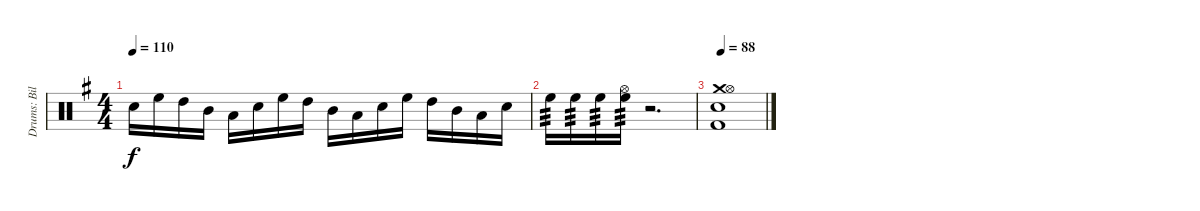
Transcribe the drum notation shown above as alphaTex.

\track ("Drums: Bill" "Drums: Bil") {instrument percussion}
\staff {score}
\articulation defaults
\ts (4 4)
\tempo 110
\clef neutral
\ks g "Snare (hit) 2".16{dy f} "High Floor Tom (hit)".16 "High Tom (hit)".16 "Mid Tom (hit)".16 "Low Tom (hit)".16 "Snare (hit) 2".16 "High Floor Tom (hit)".16 "High Tom (hit)".16 "Mid Tom (hit)".16 "Low Tom (hit)".16 "Snare (hit) 2".16 "High Floor Tom (hit)".16 "High Tom (hit)".16 "Mid Tom (hit)".16 "Low Tom (hit)".16 "Snare (hit) 2".16
|
"High Floor Tom (hit)".16{tp 3} "High Floor Tom (hit)".16{tp 3} "High Floor Tom (hit)".16{tp 3} ("Hi-Hat (open)" "High Floor Tom (hit)").16{tp 3} r.2{d} |
\tempo 88
("Crash medium (hit)" "Hi-Hat (open)" "Snare (hit) 2" "Kick (hit) 2").1
